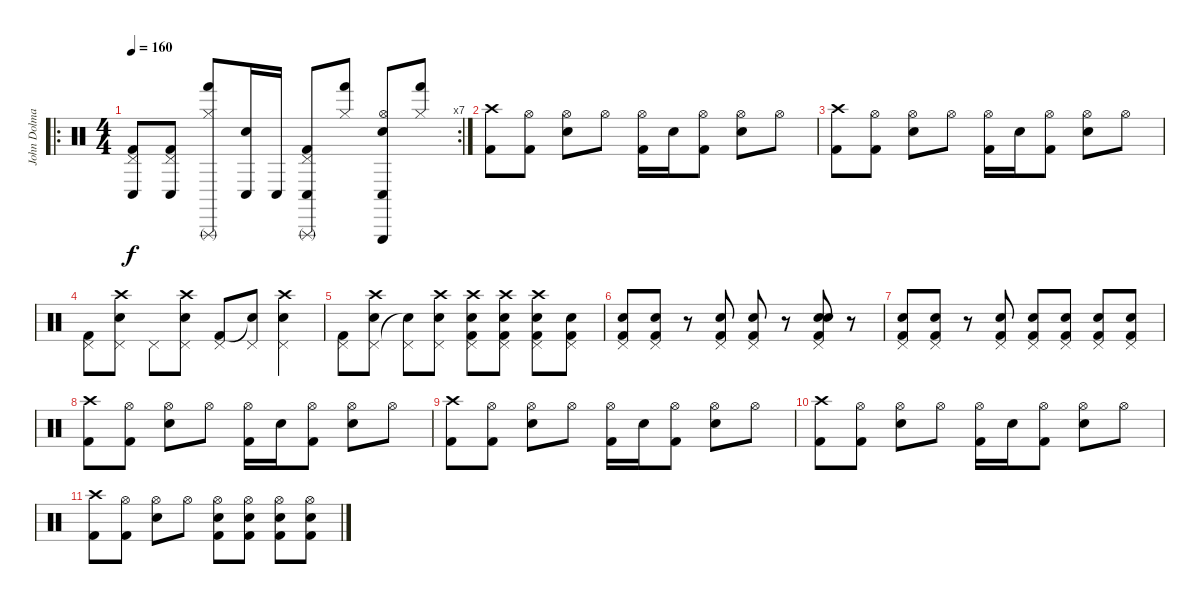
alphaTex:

\track ("John Dolmayan" "John Dolma") {instrument percussion}
\staff {score}
\articulation defaults
\ro
\rc 7
\ts (4 4)
\tempo 160
\clef neutral
\ks c
("Pedal Hi-Hat (hit)" "Kick (hit) 2" "Conga low (hit)").8{dy f} ("Pedal Hi-Hat (hit)" "Kick (hit) 2" "Conga low (hit)").8 ("Hi-Hat (closed)" "Triangle (rnute)" "Hand (hit)").8 ("Electric Snare (hit)" "Conga low (hit)").16 "Conga low (hit)".16 ("Pedal Hi-Hat (hit)" "Kick (hit) 2" "Triangle (rnute)" "Conga low (hit)").8 ("Hi-Hat (closed)" "Hand (hit)").8 ("Hi-Hat (open)" "Electric Snare (hit)" "Triangle (hit)" "Conga low (hit)").8 ("Hi-Hat (closed)" "Hand (hit)").8 |
("Crash high (hit)" "Kick (hit) 2").8 ("Hi-Hat (open)" "Kick (hit) 2").8 ("Hi-Hat (open)" "Electric Snare (hit)").8 "Hi-Hat (open)".8 ("Hi-Hat (open)" "Kick (hit) 2").16 "Electric Snare (hit)".16 ("Hi-Hat (open)" "Kick (hit) 2").8 ("Hi-Hat (open)" "Electric Snare (hit)").8 "Hi-Hat (open)".8 |
("Crash high (hit)" "Kick (hit) 2").8 ("Hi-Hat (open)" "Kick (hit) 2").8 ("Hi-Hat (open)" "Electric Snare (hit)").8 "Hi-Hat (open)".8 ("Hi-Hat (open)" "Kick (hit) 2").16 "Electric Snare (hit)".16 ("Hi-Hat (open)" "Kick (hit) 2").8 ("Hi-Hat (open)" "Electric Snare (hit)").8 "Hi-Hat (open)".8 |
("Pedal Hi-Hat (hit)" "Kick (hit) 2").8 ("Crash high (hit)" "Pedal Hi-Hat (hit)" "Electric Snare (hit)").8 "Pedal Hi-Hat (hit)".8 ("Crash high (hit)" "Pedal Hi-Hat (hit)" "Electric Snare (hit)").8 ("Pedal Hi-Hat (hit)" "Kick (hit) 2").8 ("Pedal Hi-Hat (hit)" "Snare (hit)"{t}).8 ("Crash high (hit)" "Pedal Hi-Hat (hit)" "Electric Snare (hit)").4 |
("Pedal Hi-Hat (hit)" "Kick (hit) 2").8 ("Crash high (hit)" "Pedal Hi-Hat (hit)" "Electric Snare (hit)").8 ("Pedal Hi-Hat (hit)" "Snare (hit)"{t}).8 ("Crash high (hit)" "Pedal Hi-Hat (hit)" "Electric Snare (hit)").8 ("Crash high (hit)" "Pedal Hi-Hat (hit)" "Electric Snare (hit)" "Kick (hit) 2").8 ("Crash high (hit)" "Pedal Hi-Hat (hit)" "Electric Snare (hit)" "Kick (hit) 2").8 ("Crash high (hit)" "Pedal Hi-Hat (hit)" "Electric Snare (hit)" "Kick (hit) 2").8 ("Pedal Hi-Hat (hit)" "Electric Snare (hit)" "Kick (hit) 2").8 |
("Pedal Hi-Hat (hit)" "Electric Snare (hit)" "Kick (hit) 2").8 ("Pedal Hi-Hat (hit)" "Electric Snare (hit)" "Kick (hit) 2").8 r.8 ("Pedal Hi-Hat (hit)" "Electric Snare (hit)" "Kick (hit) 2").8 ("Pedal Hi-Hat (hit)" "Electric Snare (hit)" "Kick (hit) 2").8 r.8 ("Pedal Hi-Hat (hit)" "Electric Snare (hit)" "Electric Snare (hit)" "Kick (hit) 2").8 r.8 |
("Pedal Hi-Hat (hit)" "Electric Snare (hit)" "Kick (hit) 2").8 ("Pedal Hi-Hat (hit)" "Electric Snare (hit)" "Kick (hit) 2").8 r.8 ("Pedal Hi-Hat (hit)" "Electric Snare (hit)" "Kick (hit) 2").8 ("Pedal Hi-Hat (hit)" "Electric Snare (hit)" "Kick (hit) 2").8 ("Pedal Hi-Hat (hit)" "Electric Snare (hit)" "Kick (hit) 2").8 ("Pedal Hi-Hat (hit)" "Electric Snare (hit)" "Kick (hit) 2").8 ("Pedal Hi-Hat (hit)" "Electric Snare (hit)" "Kick (hit) 2").8 |
("Crash high (hit)" "Kick (hit) 2").8 ("Hi-Hat (open)" "Kick (hit) 2").8 ("Hi-Hat (open)" "Electric Snare (hit)").8 "Hi-Hat (open)".8 ("Hi-Hat (open)" "Kick (hit) 2").16 "Electric Snare (hit)".16 ("Hi-Hat (open)" "Kick (hit) 2").8 ("Hi-Hat (open)" "Electric Snare (hit)").8 "Hi-Hat (open)".8 |
("Crash high (hit)" "Kick (hit) 2").8 ("Hi-Hat (open)" "Kick (hit) 2").8 ("Hi-Hat (open)" "Electric Snare (hit)").8 "Hi-Hat (open)".8 ("Hi-Hat (open)" "Kick (hit) 2").16 "Electric Snare (hit)".16 ("Hi-Hat (open)" "Kick (hit) 2").8 ("Hi-Hat (open)" "Electric Snare (hit)").8 "Hi-Hat (open)".8 |
("Crash high (hit)" "Kick (hit) 2").8 ("Hi-Hat (open)" "Kick (hit) 2").8 ("Hi-Hat (open)" "Electric Snare (hit)").8 "Hi-Hat (open)".8 ("Hi-Hat (open)" "Kick (hit) 2").16 "Electric Snare (hit)".16 ("Hi-Hat (open)" "Kick (hit) 2").8 ("Hi-Hat (open)" "Electric Snare (hit)").8 "Hi-Hat (open)".8 |
("Crash high (hit)" "Kick (hit) 2").8 ("Hi-Hat (open)" "Kick (hit) 2").8 ("Hi-Hat (open)" "Electric Snare (hit)").8 "Hi-Hat (open)".8 ("Electric Snare (hit)" "Hi-Hat (open)" "Kick (hit) 2").8 ("Electric Snare (hit)" "Hi-Hat (open)" "Kick (hit) 2").8 ("Electric Snare (hit)" "Hi-Hat (open)" "Kick (hit) 2").8 ("Electric Snare (hit)" "Hi-Hat (open)" "Kick (hit) 2").8
